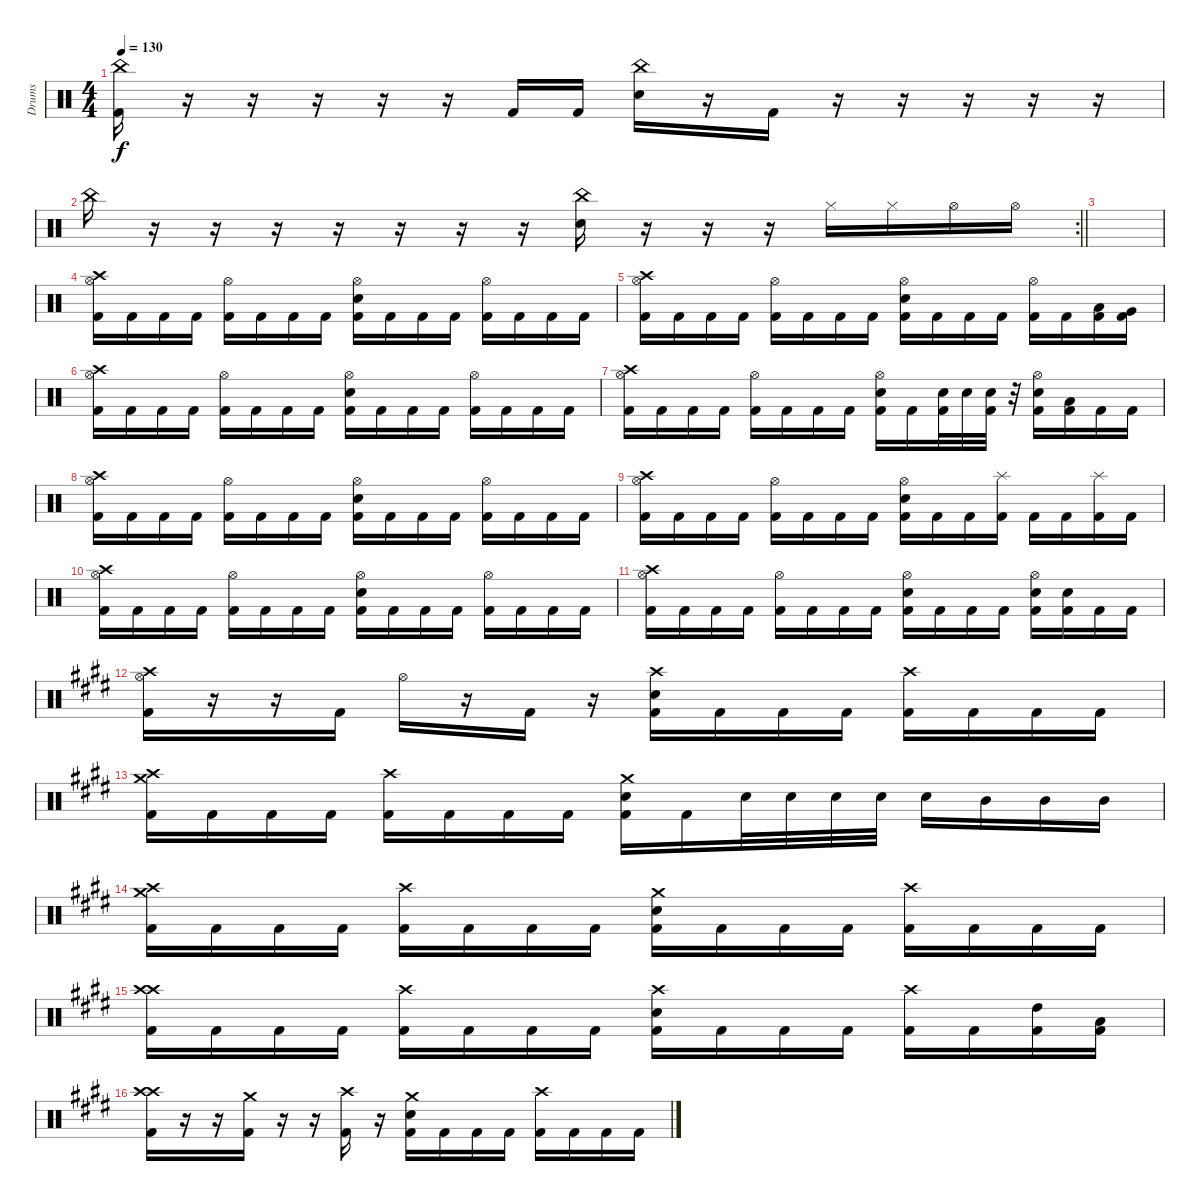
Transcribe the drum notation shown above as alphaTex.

\track ("Drums" "Drums") {instrument percussion}
\staff {score}
\articulation defaults
\ts (4 4)
\tempo 130
\clef neutral
\ks c
("China (hit)" "Kick (hit) 2").16{dy f} r.16 r.16 r.16 r.16 r.16 "Kick (hit) 2".16 "Kick (hit) 2".16 ("China (hit)" "Electric Snare (hit)").16 r.16 "Kick (hit) 2".16 r.16 r.16 r.16 r.16 r.16 |
\rc 2
\barLineRight lightlight "China (hit)".16
r.16 r.16 r.16 r.16 r.16 r.16 r.16 ("China (hit)" "Electric Snare (hit)").16 r.16 r.16 r.16 "Hi-Hat (closed)".16 "Hi-Hat (closed)".16 "Hi-Hat (open)".16 "Hi-Hat (open)".16 |
\section ("" "")
|
("Crash high (hit)" "Hi-Hat (open)" "Kick (hit) 2").16 "Kick (hit) 2".16 "Kick (hit) 2".16 "Kick (hit) 2".16 ("Hi-Hat (open)" "Kick (hit) 2").16 "Kick (hit) 2".16 "Kick (hit) 2".16 "Kick (hit) 2".16 ("Hi-Hat (open)" "Electric Snare (hit)" "Kick (hit) 2").16 "Kick (hit) 2".16 "Kick (hit) 2".16 "Kick (hit) 2".16 ("Hi-Hat (open)" "Kick (hit) 2").16 "Kick (hit) 2".16 "Kick (hit) 2".16 "Kick (hit) 2".16 |
("Crash high (hit)" "Hi-Hat (open)" "Kick (hit) 2").16 "Kick (hit) 2".16 "Kick (hit) 2".16 "Kick (hit) 2".16 ("Hi-Hat (open)" "Kick (hit) 2").16 "Kick (hit) 2".16 "Kick (hit) 2".16 "Kick (hit) 2".16 ("Hi-Hat (open)" "Electric Snare (hit)" "Kick (hit) 2").16 "Kick (hit) 2".16 "Kick (hit) 2".16 "Kick (hit) 2".16 ("Hi-Hat (open)" "Kick (hit) 2").16 "Kick (hit) 2".16 ("Low Tom (hit)" "Kick (hit) 2").16 ("Very Low Tom (hit)" "Kick (hit) 2").16 |
("Crash high (hit)" "Hi-Hat (open)" "Kick (hit) 2").16 "Kick (hit) 2".16 "Kick (hit) 2".16 "Kick (hit) 2".16 ("Hi-Hat (open)" "Kick (hit) 2").16 "Kick (hit) 2".16 "Kick (hit) 2".16 "Kick (hit) 2".16 ("Hi-Hat (open)" "Electric Snare (hit)" "Kick (hit) 2").16 "Kick (hit) 2".16 "Kick (hit) 2".16 "Kick (hit) 2".16 ("Hi-Hat (open)" "Kick (hit) 2").16 "Kick (hit) 2".16 "Kick (hit) 2".16 "Kick (hit) 2".16 |
("Crash high (hit)" "Hi-Hat (open)" "Kick (hit) 2").16 "Kick (hit) 2".16 "Kick (hit) 2".16 "Kick (hit) 2".16 ("Hi-Hat (open)" "Kick (hit) 2").16 "Kick (hit) 2".16 "Kick (hit) 2".16 "Kick (hit) 2".16 ("Hi-Hat (open)" "Electric Snare (hit)" "Kick (hit) 2").16 "Kick (hit) 2".16 ("Electric Snare (hit)" "Kick (hit) 2").32 "Electric Snare (hit)".32 ("Electric Snare (hit)" "Kick (hit) 2").32 r.32 ("Hi-Hat (open)" "Electric Snare (hit)" "Kick (hit) 2").16 ("Low Tom (hit)" "Kick (hit) 2").16 "Kick (hit) 2".16 "Kick (hit) 2".16 |
("Crash high (hit)" "Hi-Hat (open)" "Kick (hit) 2").16 "Kick (hit) 2".16 "Kick (hit) 2".16 "Kick (hit) 2".16 ("Hi-Hat (open)" "Kick (hit) 2").16 "Kick (hit) 2".16 "Kick (hit) 2".16 "Kick (hit) 2".16 ("Hi-Hat (open)" "Electric Snare (hit)" "Kick (hit) 2").16 "Kick (hit) 2".16 "Kick (hit) 2".16 "Kick (hit) 2".16 ("Hi-Hat (open)" "Kick (hit) 2").16 "Kick (hit) 2".16 "Kick (hit) 2".16 "Kick (hit) 2".16 |
("Crash high (hit)" "Hi-Hat (open)" "Kick (hit) 2").16 "Kick (hit) 2".16 "Kick (hit) 2".16 "Kick (hit) 2".16 ("Hi-Hat (open)" "Kick (hit) 2").16 "Kick (hit) 2".16 "Kick (hit) 2".16 "Kick (hit) 2".16 ("Hi-Hat (open)" "Electric Snare (hit)" "Kick (hit) 2").16 "Kick (hit) 2".16 "Kick (hit) 2".16 ("Splash (hit)" "Kick (hit) 2").16 "Kick (hit) 2".16 "Kick (hit) 2".16 ("Splash (hit)" "Kick (hit) 2").16 "Kick (hit) 2".16 |
("Crash high (hit)" "Hi-Hat (open)" "Kick (hit) 2").16 "Kick (hit) 2".16 "Kick (hit) 2".16 "Kick (hit) 2".16 ("Hi-Hat (open)" "Kick (hit) 2").16 "Kick (hit) 2".16 "Kick (hit) 2".16 "Kick (hit) 2".16 ("Hi-Hat (open)" "Electric Snare (hit)" "Kick (hit) 2").16 "Kick (hit) 2".16 "Kick (hit) 2".16 "Kick (hit) 2".16 ("Hi-Hat (open)" "Kick (hit) 2").16 "Kick (hit) 2".16 "Kick (hit) 2".16 "Kick (hit) 2".16 |
("Crash high (hit)" "Hi-Hat (open)" "Kick (hit) 2").16 "Kick (hit) 2".16 "Kick (hit) 2".16 "Kick (hit) 2".16 ("Hi-Hat (open)" "Kick (hit) 2").16 "Kick (hit) 2".16 "Kick (hit) 2".16 "Kick (hit) 2".16 ("Hi-Hat (open)" "Electric Snare (hit)" "Kick (hit) 2").16 "Kick (hit) 2".16 "Kick (hit) 2".16 "Kick (hit) 2".16 ("Hi-Hat (open)" "Electric Snare (hit)" "Kick (hit) 2").16 ("Electric Snare (hit)" "Kick (hit) 2").16 "Kick (hit) 2".16 "Kick (hit) 2".16 |
\ks c#minor
("Crash high (hit)" "Hi-Hat (open)" "Kick (hit) 2").16 r.16 r.16 "Kick (hit) 2".16 "Hi-Hat (open)".16 r.16 "Kick (hit) 2".16 r.16 ("Crash high (hit)" "Electric Snare (hit)" "Kick (hit) 2").16 "Kick (hit) 2".16 "Kick (hit) 2".16 "Kick (hit) 2".16 ("Crash high (hit)" "Kick (hit) 2").16 "Kick (hit) 2".16 "Kick (hit) 2".16 "Kick (hit) 2".16 |
("Crash high (hit)" "Crash medium (hit)" "Kick (hit) 2").16 "Kick (hit) 2".16 "Kick (hit) 2".16 "Kick (hit) 2".16 ("Crash high (hit)" "Kick (hit) 2").16 "Kick (hit) 2".16 "Kick (hit) 2".16 "Kick (hit) 2".16 ("Crash medium (hit)" "Electric Snare (hit)" "Kick (hit) 2").16 "Kick (hit) 2".16 "Electric Snare (hit)".32 "Electric Snare (hit)".32 "Electric Snare (hit)".32 "Electric Snare (hit)".32 "Electric Snare (hit)".16 "Mid Tom (hit)".16 "Mid Tom (hit)".16 "Mid Tom (hit)".16 |
("Crash high (hit)" "Crash medium (hit)" "Kick (hit) 2").16 "Kick (hit) 2".16 "Kick (hit) 2".16 "Kick (hit) 2".16 ("Crash high (hit)" "Kick (hit) 2").16 "Kick (hit) 2".16 "Kick (hit) 2".16 "Kick (hit) 2".16 ("Crash medium (hit)" "Electric Snare (hit)" "Kick (hit) 2").16 "Kick (hit) 2".16 "Kick (hit) 2".16 "Kick (hit) 2".16 ("Crash high (hit)" "Kick (hit) 2").16 "Kick (hit) 2".16 "Kick (hit) 2".16 "Kick (hit) 2".16 |
("Crash high (hit)" "Crash high (hit)" "Kick (hit) 2").16 "Kick (hit) 2".16 "Kick (hit) 2".16 "Kick (hit) 2".16 ("Crash high (hit)" "Kick (hit) 2").16 "Kick (hit) 2".16 "Kick (hit) 2".16 "Kick (hit) 2".16 ("Crash high (hit)" "Electric Snare (hit)" "Kick (hit) 2").16 "Kick (hit) 2".16 "Kick (hit) 2".16 "Kick (hit) 2".16 ("Crash high (hit)" "Kick (hit) 2").16 "Kick (hit) 2".16 ("High Tom (hit)" "Kick (hit) 2").16 ("Low Tom (hit)" "Kick (hit) 2").16 |
("Crash high (hit)" "Crash high (hit)" "Kick (hit) 2").16 r.16 r.16 ("Crash medium (hit)" "Kick (hit) 2").16 r.16 r.16 ("Crash high (hit)" "Kick (hit) 2").16 r.16 ("Crash medium (hit)" "Electric Snare (hit)" "Kick (hit) 2").16 "Kick (hit) 2".16 "Kick (hit) 2".16 "Kick (hit) 2".16 ("Crash high (hit)" "Kick (hit) 2").16 "Kick (hit) 2".16 "Kick (hit) 2".16 "Kick (hit) 2".16
